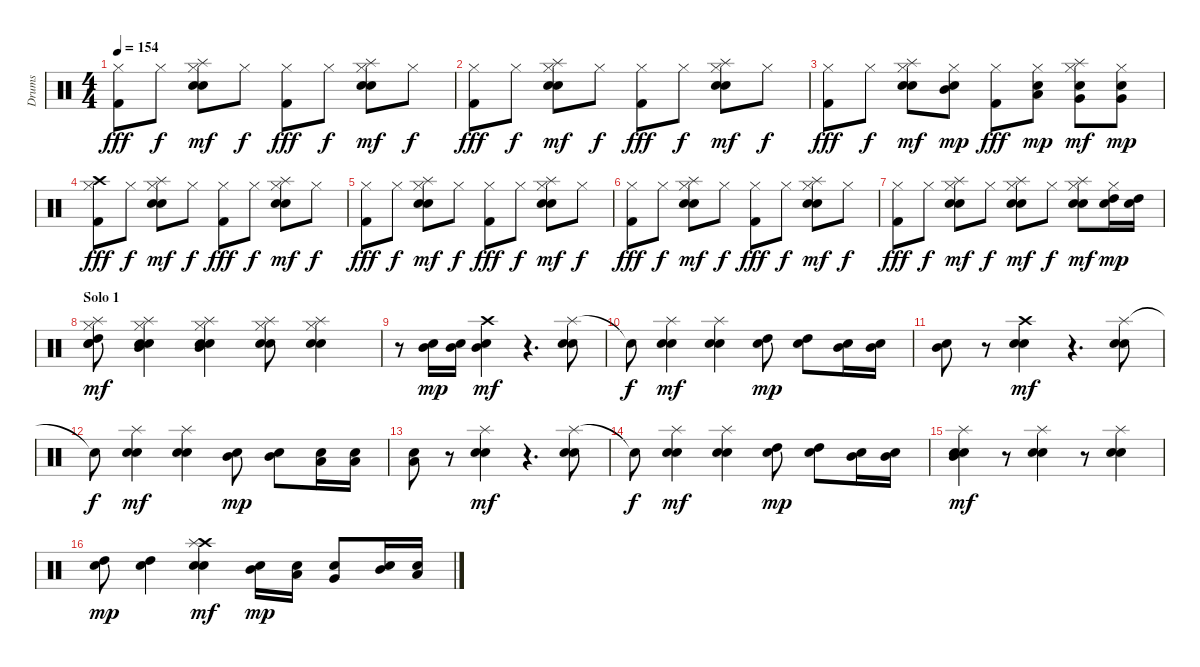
\track ("Drums" "Drums") {instrument percussion}
\staff {score}
\articulation defaults
\ts (4 4)
\tempo 154
\clef neutral
\ks c
("Hi-Hat (closed)" "Kick (hit) 2").8{dy fff} "Hi-Hat (closed)".8{dy f} ("Splash (hit)" "Hi-Hat (closed)" "Electric Snare (hit)" "Snare (hit) 2").8{dy mf} "Hi-Hat (closed)".8{dy f} ("Hi-Hat (closed)" "Kick (hit) 2").8{dy fff} "Hi-Hat (closed)".8{dy f} ("Splash (hit)" "Hi-Hat (closed)" "Electric Snare (hit)" "Snare (hit) 2").8{dy mf} "Hi-Hat (closed)".8{dy f} |
("Hi-Hat (closed)" "Kick (hit) 2").8{dy fff} "Hi-Hat (closed)".8{dy f} ("Splash (hit)" "Hi-Hat (closed)" "Electric Snare (hit)" "Snare (hit) 2").8{dy mf} "Hi-Hat (closed)".8{dy f} ("Hi-Hat (closed)" "Kick (hit) 2").8{dy fff} "Hi-Hat (closed)".8{dy f} ("Splash (hit)" "Hi-Hat (closed)" "Electric Snare (hit)" "Snare (hit) 2").8{dy mf} "Hi-Hat (closed)".8{dy f} |
("Hi-Hat (closed)" "Kick (hit) 2").8{dy fff} "Hi-Hat (closed)".8{dy f} ("Splash (hit)" "Hi-Hat (closed)" "Electric Snare (hit)" "Snare (hit) 2").8{dy mf} ("Hi-Hat (closed)" "Mid Tom (hit)" "Snare (hit) 2").8{dy mp} ("Hi-Hat (closed)" "Kick (hit) 2").8{dy fff} ("Hi-Hat (closed)" "Low Tom (hit)" "Snare (hit) 2").8{dy mp} ("Splash (hit)" "Hi-Hat (closed)" "Very Low Tom (hit)" "Snare (hit) 2").8{dy mf} ("Hi-Hat (closed)" "Very Low Tom (hit)" "Snare (hit) 2").8{dy mp} |
("Crash high (hit)" "Hi-Hat (closed)" "Kick (hit) 2").8{dy fff} "Hi-Hat (closed)".8{dy f} ("Splash (hit)" "Hi-Hat (closed)" "Electric Snare (hit)" "Snare (hit) 2").8{dy mf} "Hi-Hat (closed)".8{dy f} ("Hi-Hat (closed)" "Kick (hit) 2").8{dy fff} "Hi-Hat (closed)".8{dy f} ("Splash (hit)" "Hi-Hat (closed)" "Electric Snare (hit)" "Snare (hit) 2").8{dy mf} "Hi-Hat (closed)".8{dy f} |
("Hi-Hat (closed)" "Kick (hit) 2").8{dy fff} "Hi-Hat (closed)".8{dy f} ("Splash (hit)" "Hi-Hat (closed)" "Electric Snare (hit)" "Snare (hit) 2").8{dy mf} "Hi-Hat (closed)".8{dy f} ("Hi-Hat (closed)" "Kick (hit) 2").8{dy fff} "Hi-Hat (closed)".8{dy f} ("Splash (hit)" "Hi-Hat (closed)" "Electric Snare (hit)" "Snare (hit) 2").8{dy mf} "Hi-Hat (closed)".8{dy f} |
("Hi-Hat (closed)" "Kick (hit) 2").8{dy fff} "Hi-Hat (closed)".8{dy f} ("Splash (hit)" "Hi-Hat (closed)" "Electric Snare (hit)" "Snare (hit) 2").8{dy mf} "Hi-Hat (closed)".8{dy f} ("Hi-Hat (closed)" "Kick (hit) 2").8{dy fff} "Hi-Hat (closed)".8{dy f} ("Splash (hit)" "Hi-Hat (closed)" "Electric Snare (hit)" "Snare (hit) 2").8{dy mf} "Hi-Hat (closed)".8{dy f} |
("Hi-Hat (closed)" "Kick (hit) 2").8{dy fff} "Hi-Hat (closed)".8{dy f} ("Splash (hit)" "Hi-Hat (closed)" "Electric Snare (hit)" "Snare (hit) 2").8{dy mf} "Hi-Hat (closed)".8{dy f} ("Splash (hit)" "Hi-Hat (closed)" "Electric Snare (hit)" "Snare (hit) 2").8{dy mf} "Hi-Hat (closed)".8{dy f} ("Splash (hit)" "Hi-Hat (closed)" "Electric Snare (hit)" "Snare (hit) 2").8{dy mf} ("Hi-Hat (closed)" "High Tom (hit)" "Snare (hit) 2").16{dy mp} ("High Tom (hit)" "Snare (hit) 2").16 |
\section ("" "Solo 1")
("Splash (hit)" "Hi-Hat (closed)" "Electric Snare (hit)" "High Tom (hit)" "Snare (hit) 2").8{dy mf} ("Splash (hit)" "Hi-Hat (closed)" "Electric Snare (hit)" "Mid Tom (hit)" "Snare (hit) 2").4 ("Splash (hit)" "Hi-Hat (closed)" "Electric Snare (hit)" "Mid Tom (hit)" "Snare (hit) 2").4 ("Splash (hit)" "Hi-Hat (closed)" "Electric Snare (hit)" "Snare (hit) 2").8 ("Splash (hit)" "Hi-Hat (closed)" "Electric Snare (hit)" "Snare (hit) 2").4 |
r.8 ("Mid Tom (hit)" "Snare (hit) 2").16{dy mp} ("Mid Tom (hit)" "Snare (hit) 2").16 ("Crash high (hit)" "Mid Tom (hit)" "Snare (hit) 2").4{dy mf} r.4{d} ("Splash (hit)" "Electric Snare (hit)" "Snare (hit) 2").8 |
"Snare (hit)"{t}.8{dy f} ("Splash (hit)" "Electric Snare (hit)" "Snare (hit) 2").4{dy mf} ("Splash (hit)" "Electric Snare (hit)" "Snare (hit) 2").4 ("High Tom (hit)" "Snare (hit) 2").8{dy mp} ("High Tom (hit)" "Snare (hit) 2").8 ("Mid Tom (hit)" "Snare (hit) 2").16 ("Mid Tom (hit)" "Snare (hit) 2").16 |
("Mid Tom (hit)" "Snare (hit) 2").8 r.8 ("Crash high (hit)" "Electric Snare (hit)" "Snare (hit) 2").4{dy mf} r.4{d} ("Splash (hit)" "Electric Snare (hit)" "Snare (hit) 2").8 |
"Snare (hit)"{t}.8{dy f} ("Splash (hit)" "Electric Snare (hit)" "Snare (hit) 2").4{dy mf} ("Splash (hit)" "Electric Snare (hit)" "Snare (hit) 2").4 ("Mid Tom (hit)" "Snare (hit) 2").8{dy mp} ("Mid Tom (hit)" "Snare (hit) 2").8 ("Low Tom (hit)" "Snare (hit) 2").16 ("Low Tom (hit)" "Snare (hit) 2").16 |
("Low Tom (hit)" "Snare (hit) 2").8 r.8 ("Splash (hit)" "Electric Snare (hit)" "Snare (hit) 2").4{dy mf} r.4{d} ("Splash (hit)" "Electric Snare (hit)" "Snare (hit) 2").8 |
"Snare (hit)"{t}.8{dy f} ("Splash (hit)" "Electric Snare (hit)" "Snare (hit) 2").4{dy mf} ("Splash (hit)" "Electric Snare (hit)" "Snare (hit) 2").4 ("High Tom (hit)" "Snare (hit) 2").8{dy mp} ("High Tom (hit)" "Snare (hit) 2").8 ("Mid Tom (hit)" "Snare (hit) 2").16 ("Mid Tom (hit)" "Snare (hit) 2").16 |
("Splash (hit)" "Mid Tom (hit)" "Electric Snare (hit)" "Snare (hit) 2").4{dy mf} r.8 ("Splash (hit)" "Electric Snare (hit)" "Snare (hit) 2").4 r.8 ("Splash (hit)" "Electric Snare (hit)" "Snare (hit) 2").4 |
("High Tom (hit)" "Snare (hit) 2").8{dy mp} ("High Tom (hit)" "Snare (hit) 2").4 ("Crash high (hit)" "Splash (hit)" "Electric Snare (hit)" "Snare (hit) 2").4{dy mf} ("Mid Tom (hit)" "Snare (hit) 2").16{dy mp} ("Low Tom (hit)" "Snare (hit) 2").16 ("Very Low Tom (hit)" "Snare (hit) 2").8 ("Mid Tom (hit)" "Snare (hit) 2").16 ("Low Tom (hit)" "Snare (hit) 2").16
